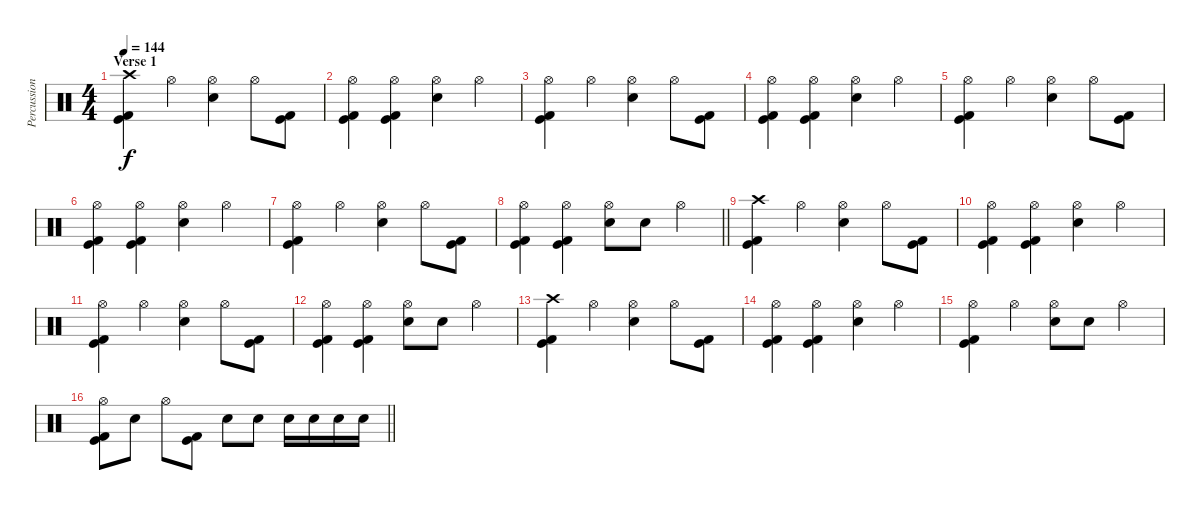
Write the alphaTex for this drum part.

\track ("Percussion" "Percussion") {instrument percussion}
\staff {score}
\articulation defaults
\ts (4 4)
\section ("" "Verse 1")
\tempo 144
\clef neutral
\ks c
("Crash high (hit)" "Kick (hit)" "Kick (hit) 2").4{dy f} "Hi-Hat (open)".4 ("Hi-Hat (open)" "Electric Snare (hit)").4 "Hi-Hat (open)".8 ("Kick (hit)" "Kick (hit) 2").8 |
("Hi-Hat (open)" "Kick (hit)" "Kick (hit) 2").4 ("Hi-Hat (open)" "Kick (hit)" "Kick (hit) 2").4 ("Hi-Hat (open)" "Electric Snare (hit)").4 "Hi-Hat (open)".4 |
("Hi-Hat (open)" "Kick (hit)" "Kick (hit) 2").4 "Hi-Hat (open)".4 ("Hi-Hat (open)" "Electric Snare (hit)").4 "Hi-Hat (open)".8 ("Kick (hit)" "Kick (hit) 2").8 |
("Hi-Hat (open)" "Kick (hit)" "Kick (hit) 2").4 ("Hi-Hat (open)" "Kick (hit)" "Kick (hit) 2").4 ("Hi-Hat (open)" "Electric Snare (hit)").4 "Hi-Hat (open)".4 |
("Hi-Hat (open)" "Kick (hit)" "Kick (hit) 2").4 "Hi-Hat (open)".4 ("Hi-Hat (open)" "Electric Snare (hit)").4 "Hi-Hat (open)".8 ("Kick (hit)" "Kick (hit) 2").8 |
("Hi-Hat (open)" "Kick (hit)" "Kick (hit) 2").4 ("Hi-Hat (open)" "Kick (hit)" "Kick (hit) 2").4 ("Hi-Hat (open)" "Electric Snare (hit)").4 "Hi-Hat (open)".4 |
("Hi-Hat (open)" "Kick (hit)" "Kick (hit) 2").4 "Hi-Hat (open)".4 ("Hi-Hat (open)" "Electric Snare (hit)").4 "Hi-Hat (open)".8 ("Kick (hit)" "Kick (hit) 2").8 |
\barLineRight lightlight
("Hi-Hat (open)" "Kick (hit)" "Kick (hit) 2").4 ("Hi-Hat (open)" "Kick (hit)" "Kick (hit) 2").4 ("Hi-Hat (open)" "Electric Snare (hit)").8 "Electric Snare (hit)".8 "Hi-Hat (open)".4 |
\section ("" "")
("Crash high (hit)" "Kick (hit)" "Kick (hit) 2").4 "Hi-Hat (open)".4 ("Hi-Hat (open)" "Electric Snare (hit)").4 "Hi-Hat (open)".8 ("Kick (hit)" "Kick (hit) 2").8 |
("Hi-Hat (open)" "Kick (hit)" "Kick (hit) 2").4 ("Hi-Hat (open)" "Kick (hit)" "Kick (hit) 2").4 ("Hi-Hat (open)" "Electric Snare (hit)").4 "Hi-Hat (open)".4 |
("Hi-Hat (open)" "Kick (hit)" "Kick (hit) 2").4 "Hi-Hat (open)".4 ("Hi-Hat (open)" "Electric Snare (hit)").4 "Hi-Hat (open)".8 ("Kick (hit)" "Kick (hit) 2").8 |
("Hi-Hat (open)" "Kick (hit)" "Kick (hit) 2").4 ("Hi-Hat (open)" "Kick (hit)" "Kick (hit) 2").4 ("Hi-Hat (open)" "Electric Snare (hit)").8 "Electric Snare (hit)".8 "Hi-Hat (open)".4 |
("Crash high (hit)" "Kick (hit)" "Kick (hit) 2").4 "Hi-Hat (open)".4 ("Hi-Hat (open)" "Electric Snare (hit)").4 "Hi-Hat (open)".8 ("Kick (hit)" "Kick (hit) 2").8 |
("Hi-Hat (open)" "Kick (hit)" "Kick (hit) 2").4 ("Hi-Hat (open)" "Kick (hit)" "Kick (hit) 2").4 ("Hi-Hat (open)" "Electric Snare (hit)").4 "Hi-Hat (open)".4 |
("Hi-Hat (open)" "Kick (hit)" "Kick (hit) 2").4 "Hi-Hat (open)".4 ("Hi-Hat (open)" "Electric Snare (hit)").8 "Electric Snare (hit)".8 "Hi-Hat (open)".4 |
\barLineRight lightlight
("Hi-Hat (open)" "Kick (hit)" "Kick (hit) 2").8 "Electric Snare (hit)".8 "Hi-Hat (open)".8 ("Kick (hit)" "Kick (hit) 2").8 "Electric Snare (hit)".8 "Electric Snare (hit)".8 "Electric Snare (hit)".16 "Electric Snare (hit)".16 "Electric Snare (hit)".16 "Electric Snare (hit)".16
